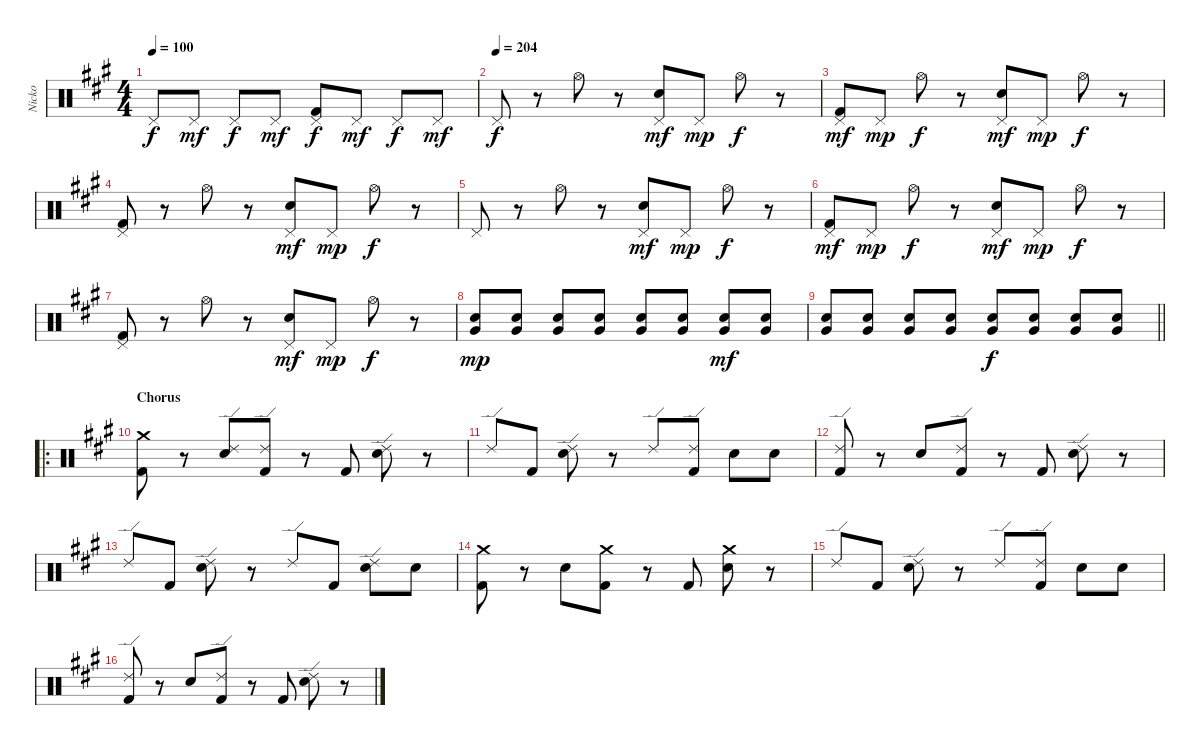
\track ("Nicko" "Nicko") {instrument percussion}
\staff {score}
\articulation defaults
\ts (4 4)
\tempo 100
\clef neutral
\ks a "Pedal Hi-Hat (hit)".8{dy f} "Pedal Hi-Hat (hit)".8{dy mf} "Pedal Hi-Hat (hit)".8{dy f} "Pedal Hi-Hat (hit)".8{dy mf}
("Pedal Hi-Hat (hit)" "Kick (hit) 2").8{dy f} "Pedal Hi-Hat (hit)".8{dy mf} "Pedal Hi-Hat (hit)".8{dy f} "Pedal Hi-Hat (hit)".8{dy mf} |
\tempo (204)
"Pedal Hi-Hat (hit)".8{dy f} r.8 "Hi-Hat (open)".8 r.8 ("Pedal Hi-Hat (hit)" "Snare (hit) 2").8{dy mf} "Pedal Hi-Hat (hit)".8{dy mp} "Hi-Hat (open)".8{dy f} r.8 |
("Pedal Hi-Hat (hit)" "Kick (hit) 2").8{dy mf} "Pedal Hi-Hat (hit)".8{dy mp} "Hi-Hat (open)".8{dy f} r.8 ("Pedal Hi-Hat (hit)" "Snare (hit) 2").8{dy mf} "Pedal Hi-Hat (hit)".8{dy mp} "Hi-Hat (open)".8{dy f} r.8 |
("Pedal Hi-Hat (hit)" "Kick (hit) 2").8 r.8 "Hi-Hat (open)".8 r.8 ("Pedal Hi-Hat (hit)" "Snare (hit) 2").8{dy mf} "Pedal Hi-Hat (hit)".8{dy mp} "Hi-Hat (open)".8{dy f} r.8 |
"Pedal Hi-Hat (hit)".8 r.8 "Hi-Hat (open)".8 r.8 ("Pedal Hi-Hat (hit)" "Snare (hit) 2").8{dy mf} "Pedal Hi-Hat (hit)".8{dy mp} "Hi-Hat (open)".8{dy f} r.8 |
("Pedal Hi-Hat (hit)" "Kick (hit) 2").8{dy mf} "Pedal Hi-Hat (hit)".8{dy mp} "Hi-Hat (open)".8{dy f} r.8 ("Pedal Hi-Hat (hit)" "Snare (hit) 2").8{dy mf} "Pedal Hi-Hat (hit)".8{dy mp} "Hi-Hat (open)".8{dy f} r.8 |
("Pedal Hi-Hat (hit)" "Kick (hit) 2").8 r.8 "Hi-Hat (open)".8 r.8 ("Pedal Hi-Hat (hit)" "Snare (hit) 2").8{dy mf} "Pedal Hi-Hat (hit)".8{dy mp} "Hi-Hat (open)".8{dy f} r.8 |
("Snare (hit) 2" "Very Low Tom (hit)").8{dy mp} ("Snare (hit) 2" "Very Low Tom (hit)").8 ("Snare (hit) 2" "Very Low Tom (hit)").8 ("Snare (hit) 2" "Very Low Tom (hit)").8 ("Snare (hit) 2" "Very Low Tom (hit)").8 ("Snare (hit) 2" "Very Low Tom (hit)").8 ("Snare (hit) 2" "Very Low Tom (hit)").8{dy mf} ("Snare (hit) 2" "Very Low Tom (hit)").8 |
\barLineRight lightlight
("Snare (hit) 2" "Very Low Tom (hit)").8 ("Snare (hit) 2" "Very Low Tom (hit)").8 ("Snare (hit) 2" "Very Low Tom (hit)").8 ("Snare (hit) 2" "Very Low Tom (hit)").8 ("Snare (hit) 2" "Very Low Tom (hit)").8{dy f} ("Snare (hit) 2" "Very Low Tom (hit)").8 ("Snare (hit) 2" "Very Low Tom (hit)").8 ("Snare (hit) 2" "Very Low Tom (hit)").8 |
\ro
\section ("" "Chorus")
("Crash medium (hit)" "Kick (hit) 2").8 r.8 ("Ride (edge) 2" "Snare (hit) 2").8 ("Ride (edge) 2" "Kick (hit) 2").8 r.8 "Kick (hit) 2".8 ("Ride (edge) 2" "Snare (hit) 2").8 r.8 |
"Ride (edge) 2".8 "Kick (hit) 2".8 ("Ride (edge) 2" "Snare (hit) 2").8 r.8 "Ride (edge) 2".8 ("Ride (edge) 2" "Kick (hit) 2").8 "Snare (hit) 2".8 "Snare (hit) 2".8 |
("Ride (edge) 2" "Kick (hit) 2").8 r.8 "Snare (hit) 2".8 ("Ride (edge) 2" "Kick (hit) 2").8 r.8 "Kick (hit) 2".8 ("Ride (edge) 2" "Snare (hit) 2").8 r.8 |
"Ride (edge) 2".8 "Kick (hit) 2".8 ("Ride (edge) 2" "Snare (hit) 2").8 r.8 "Ride (edge) 2".8 "Kick (hit) 2".8 ("Ride (edge) 2" "Snare (hit) 2").8 "Snare (hit) 2".8 |
("Crash medium (hit)" "Kick (hit) 2").8 r.8 "Snare (hit) 2".8 ("Crash medium (hit)" "Kick (hit) 2").8 r.8 "Kick (hit) 2".8 ("Crash medium (hit)" "Snare (hit) 2").8 r.8 |
"Ride (edge) 2".8 "Kick (hit) 2".8 ("Ride (edge) 2" "Snare (hit) 2").8 r.8 "Ride (edge) 2".8 ("Ride (edge) 2" "Kick (hit) 2").8 "Snare (hit) 2".8 "Snare (hit) 2".8 |
("Ride (edge) 2" "Kick (hit) 2").8 r.8 "Snare (hit) 2".8 ("Ride (edge) 2" "Kick (hit) 2").8 r.8 "Kick (hit) 2".8 ("Ride (edge) 2" "Snare (hit) 2").8 r.8
